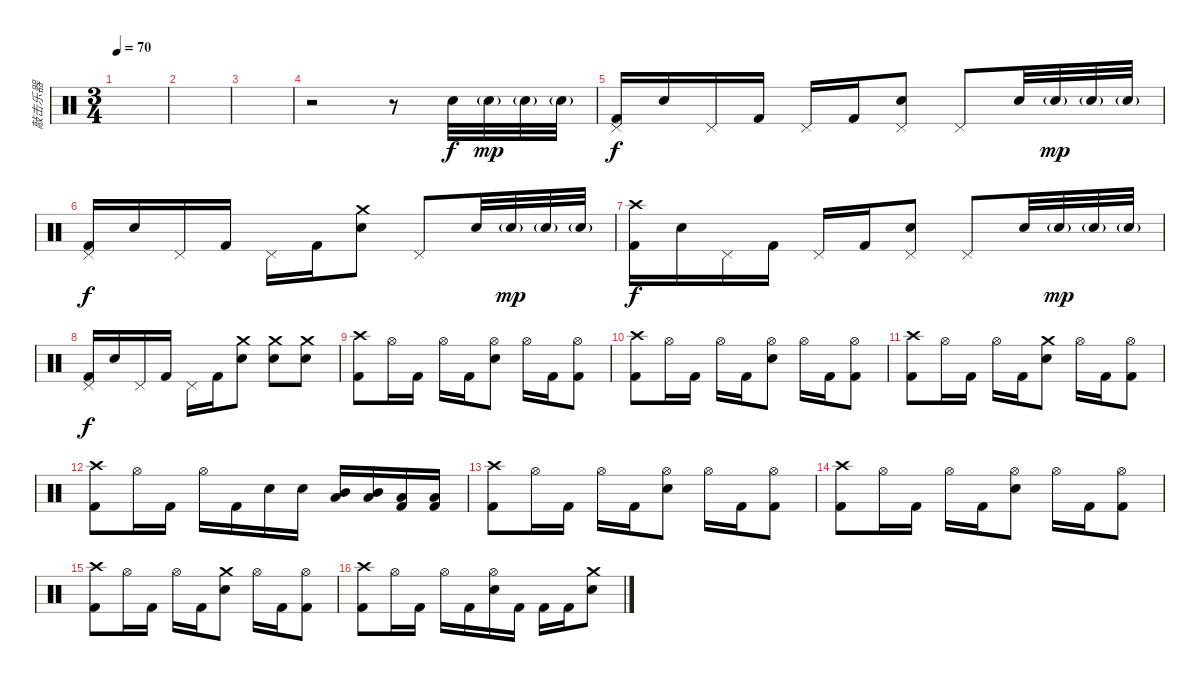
\track ("敲击乐器" "敲击乐器") {instrument percussion}
\staff {score}
\articulation defaults
\ts (3 4)
\tempo 70
\clef neutral
\ks c
|
|
|
r.2 r.8 "Snare (hit) 2".32 "Snare (hit) 2"{g}.32{dy mp} "Snare (hit) 2"{g}.32 "Snare (hit) 2"{g}.32 |
("Pedal Hi-Hat (hit)" "Kick (hit) 2").16{dy f} "Snare (hit) 2".16 "Pedal Hi-Hat (hit)".16 "Kick (hit) 2".16 "Pedal Hi-Hat (hit)".16 "Kick (hit) 2".16 ("Pedal Hi-Hat (hit)" "Snare (hit) 2").8 "Pedal Hi-Hat (hit)".8 "Snare (hit) 2".32 "Snare (hit) 2"{g}.32{dy mp} "Snare (hit) 2"{g}.32 "Snare (hit) 2"{g}.32 |
("Pedal Hi-Hat (hit)" "Kick (hit) 2").16{dy f} "Snare (hit) 2".16 "Pedal Hi-Hat (hit)".16 "Kick (hit) 2".16 "Pedal Hi-Hat (hit)".16 "Kick (hit) 2".16 ("Crash medium (hit)" "Snare (hit) 2").8 "Pedal Hi-Hat (hit)".8 "Snare (hit) 2".32 "Snare (hit) 2"{g}.32{dy mp} "Snare (hit) 2"{g}.32 "Snare (hit) 2"{g}.32 |
("Crash high (hit)" "Kick (hit) 2").16{dy f} "Snare (hit) 2".16 "Pedal Hi-Hat (hit)".16 "Kick (hit) 2".16 "Pedal Hi-Hat (hit)".16 "Kick (hit) 2".16 ("Pedal Hi-Hat (hit)" "Snare (hit) 2").8 "Pedal Hi-Hat (hit)".8 "Snare (hit) 2".32 "Snare (hit) 2"{g}.32{dy mp} "Snare (hit) 2"{g}.32 "Snare (hit) 2"{g}.32 |
("Pedal Hi-Hat (hit)" "Kick (hit) 2").16{dy f} "Snare (hit) 2".16 "Pedal Hi-Hat (hit)".16 "Kick (hit) 2".16 "Pedal Hi-Hat (hit)".16 "Kick (hit) 2".16 ("Crash medium (hit)" "Snare (hit) 2").8 ("Crash medium (hit)" "Snare (hit) 2").8 ("Crash medium (hit)" "Snare (hit) 2").8 |
("Crash high (hit)" "Kick (hit) 2").8 "Hi-Hat (open)".16 "Kick (hit) 2".16 "Hi-Hat (open)".16 "Kick (hit) 2".16 ("Snare (hit) 2" "Hi-Hat (open)").8 "Hi-Hat (open)".16 "Kick (hit) 2".16 ("Kick (hit) 2" "Hi-Hat (open)").8 |
("Crash high (hit)" "Kick (hit) 2").8 "Hi-Hat (open)".16 "Kick (hit) 2".16 "Hi-Hat (open)".16 "Kick (hit) 2".16 ("Snare (hit) 2" "Hi-Hat (open)").8 "Hi-Hat (open)".16 "Kick (hit) 2".16 ("Kick (hit) 2" "Hi-Hat (open)").8 |
("Crash high (hit)" "Kick (hit) 2").8 "Hi-Hat (open)".16 "Kick (hit) 2".16 "Hi-Hat (open)".16 "Kick (hit) 2".16 ("Snare (hit) 2" "Crash medium (hit)").8 "Hi-Hat (open)".16 "Kick (hit) 2".16 ("Kick (hit) 2" "Hi-Hat (open)").8 |
("Crash high (hit)" "Kick (hit) 2").8 "Hi-Hat (open)".16 "Kick (hit) 2".16 "Hi-Hat (open)".16 "Kick (hit) 2".16 "Snare (hit) 2".16 "Snare (hit) 2".16 ("Low Tom (hit)" "Mid Tom (hit)").16 ("Low Tom (hit)" "Mid Tom (hit)").16 ("Low Floor Tom (hit)" "Kick (hit) 2").16 ("Low Floor Tom (hit)" "Kick (hit) 2").16 |
("Crash high (hit)" "Kick (hit) 2").8 "Hi-Hat (open)".16 "Kick (hit) 2".16 "Hi-Hat (open)".16 "Kick (hit) 2".16 ("Snare (hit) 2" "Hi-Hat (open)").8 "Hi-Hat (open)".16 "Kick (hit) 2".16 ("Kick (hit) 2" "Hi-Hat (open)").8 |
("Crash high (hit)" "Kick (hit) 2").8 "Hi-Hat (open)".16 "Kick (hit) 2".16 "Hi-Hat (open)".16 "Kick (hit) 2".16 ("Snare (hit) 2" "Hi-Hat (open)").8 "Hi-Hat (open)".16 "Kick (hit) 2".16 ("Kick (hit) 2" "Hi-Hat (open)").8 |
("Crash high (hit)" "Kick (hit) 2").8 "Hi-Hat (open)".16 "Kick (hit) 2".16 "Hi-Hat (open)".16 "Kick (hit) 2".16 ("Snare (hit) 2" "Crash medium (hit)").8 "Hi-Hat (open)".16 "Kick (hit) 2".16 ("Kick (hit) 2" "Hi-Hat (open)").8 |
("Crash high (hit)" "Kick (hit) 2").8 "Hi-Hat (open)".16 "Kick (hit) 2".16 "Hi-Hat (open)".16 "Kick (hit) 2".16 ("Snare (hit) 2" "Hi-Hat (open)").16 "Kick (hit) 2".16 "Kick (hit) 2".16 "Kick (hit) 2".16 ("Crash medium (hit)" "Snare (hit) 2").8
